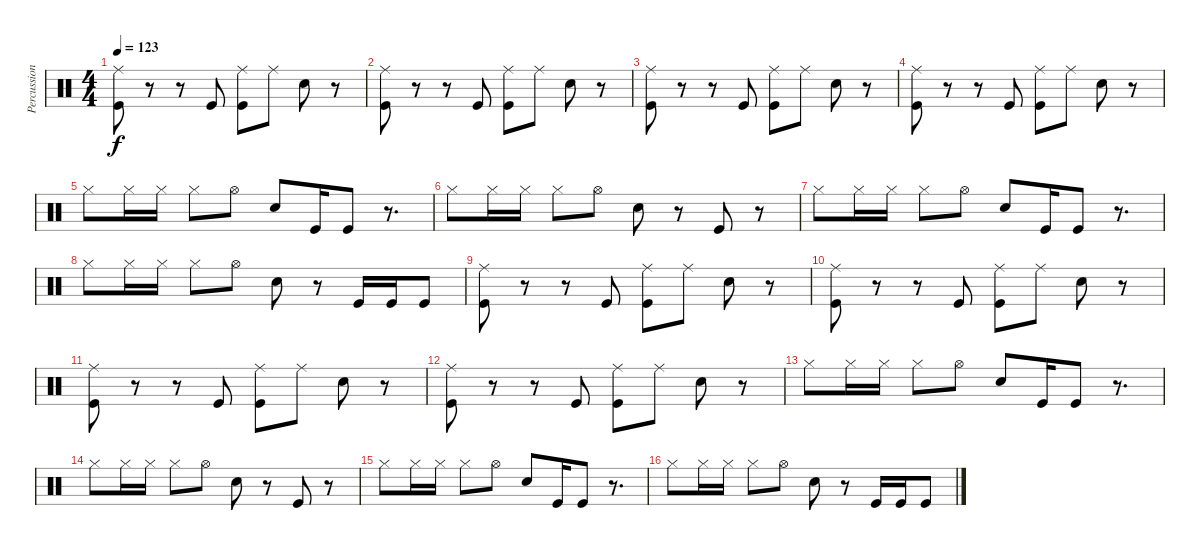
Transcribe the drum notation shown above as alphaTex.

\track ("Percussion" "Percussion") {instrument percussion}
\staff {score}
\articulation defaults
\ts (4 4)
\tempo 123
\clef neutral
\ks c
("Kick (hit)" "Ride (middle)").8{dy f} r.8 r.8 "Kick (hit)".8 ("Kick (hit)" "Ride (middle)").8 "Ride (middle)".8 "Electric Snare (hit)".8 r.8 |
("Kick (hit)" "Ride (middle)").8 r.8 r.8 "Kick (hit)".8 ("Kick (hit)" "Ride (middle)").8 "Ride (middle)".8 "Electric Snare (hit)".8 r.8 |
("Kick (hit)" "Ride (middle)").8 r.8 r.8 "Kick (hit)".8 ("Kick (hit)" "Ride (middle)").8 "Ride (middle)".8 "Electric Snare (hit)".8 r.8 |
("Kick (hit)" "Ride (middle)").8 r.8 r.8 "Kick (hit)".8 ("Kick (hit)" "Ride (middle)").8 "Ride (middle)".8 "Electric Snare (hit)".8 r.8 |
"Hi-Hat (closed)".8 "Hi-Hat (closed)".16 "Hi-Hat (closed)".16 "Hi-Hat (closed)".8 "Hi-Hat (open)".8 "Electric Snare (hit)".8 "Kick (hit)".16 "Kick (hit)".8 r.8{d} |
"Hi-Hat (closed)".8 "Hi-Hat (closed)".16 "Hi-Hat (closed)".16 "Hi-Hat (closed)".8 "Hi-Hat (open)".8 "Electric Snare (hit)".8 r.8 "Kick (hit)".8 r.8 |
"Hi-Hat (closed)".8 "Hi-Hat (closed)".16 "Hi-Hat (closed)".16 "Hi-Hat (closed)".8 "Hi-Hat (open)".8 "Electric Snare (hit)".8 "Kick (hit)".16 "Kick (hit)".8 r.8{d} |
"Hi-Hat (closed)".8 "Hi-Hat (closed)".16 "Hi-Hat (closed)".16 "Hi-Hat (closed)".8 "Hi-Hat (open)".8 "Electric Snare (hit)".8 r.8 "Kick (hit)".16 "Kick (hit)".16 "Kick (hit)".8 |
("Kick (hit)" "Ride (middle)").8 r.8 r.8 "Kick (hit)".8 ("Kick (hit)" "Ride (middle)").8 "Ride (middle)".8 "Electric Snare (hit)".8 r.8 |
("Kick (hit)" "Ride (middle)").8 r.8 r.8 "Kick (hit)".8 ("Kick (hit)" "Ride (middle)").8 "Ride (middle)".8 "Electric Snare (hit)".8 r.8 |
("Kick (hit)" "Ride (middle)").8 r.8 r.8 "Kick (hit)".8 ("Kick (hit)" "Ride (middle)").8 "Ride (middle)".8 "Electric Snare (hit)".8 r.8 |
("Kick (hit)" "Ride (middle)").8 r.8 r.8 "Kick (hit)".8 ("Kick (hit)" "Ride (middle)").8 "Ride (middle)".8 "Electric Snare (hit)".8 r.8 |
"Hi-Hat (closed)".8 "Hi-Hat (closed)".16 "Hi-Hat (closed)".16 "Hi-Hat (closed)".8 "Hi-Hat (open)".8 "Electric Snare (hit)".8 "Kick (hit)".16 "Kick (hit)".8 r.8{d} |
"Hi-Hat (closed)".8 "Hi-Hat (closed)".16 "Hi-Hat (closed)".16 "Hi-Hat (closed)".8 "Hi-Hat (open)".8 "Electric Snare (hit)".8 r.8 "Kick (hit)".8 r.8 |
"Hi-Hat (closed)".8 "Hi-Hat (closed)".16 "Hi-Hat (closed)".16 "Hi-Hat (closed)".8 "Hi-Hat (open)".8 "Electric Snare (hit)".8 "Kick (hit)".16 "Kick (hit)".8 r.8{d} |
"Hi-Hat (closed)".8 "Hi-Hat (closed)".16 "Hi-Hat (closed)".16 "Hi-Hat (closed)".8 "Hi-Hat (open)".8 "Electric Snare (hit)".8 r.8 "Kick (hit)".16 "Kick (hit)".16 "Kick (hit)".8
